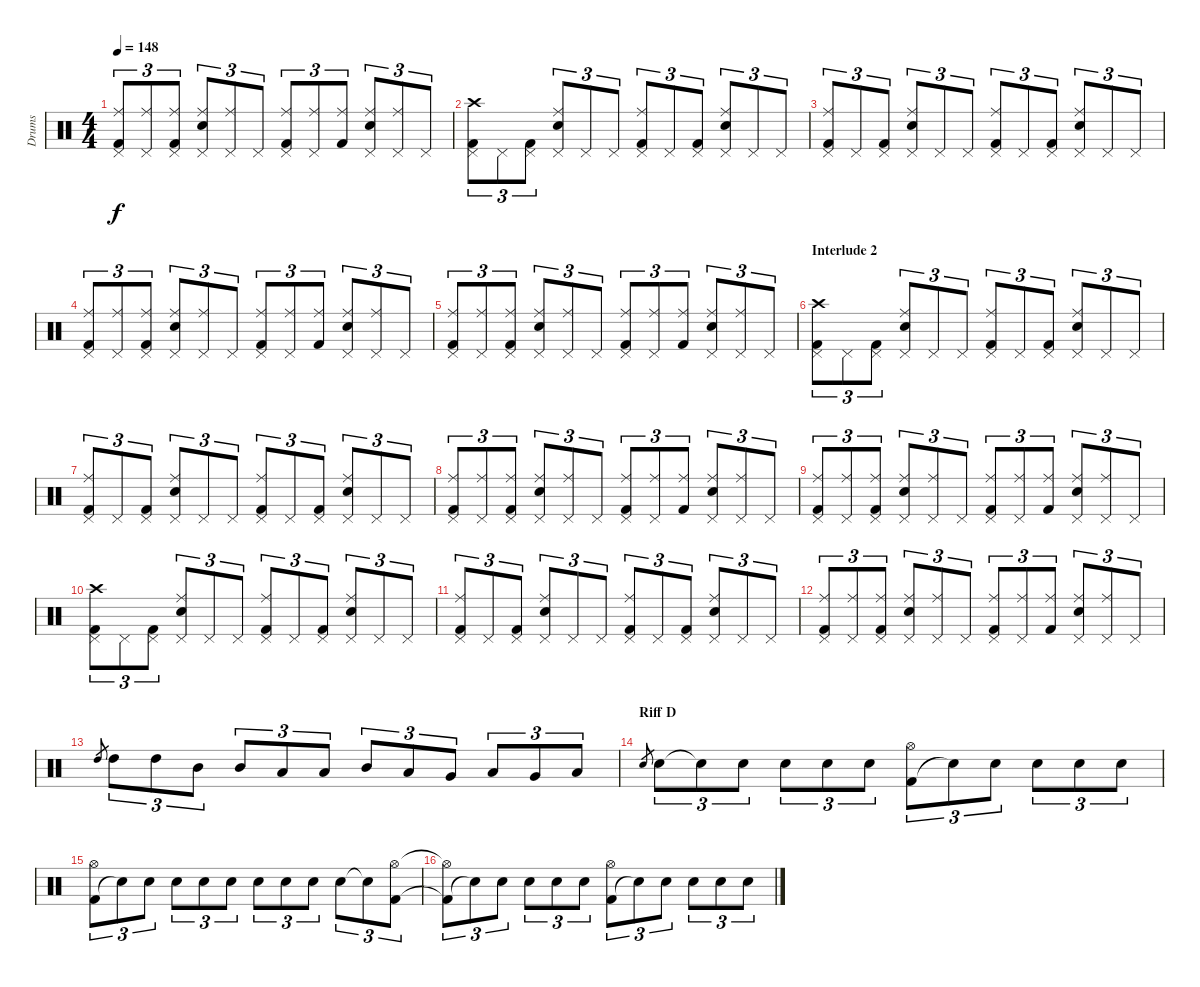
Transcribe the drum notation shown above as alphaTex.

\track ("Drums" "Drums") {instrument percussion}
\staff {score}
\articulation defaults
\ts (4 4)
\tempo 148
\clef neutral
\ks c
("Kick (hit) 2" "Pedal Hi-Hat (hit)" "Ride (middle)").8{tu (3 2) dy f} ("Pedal Hi-Hat (hit)" "Ride (middle)").8{tu (3 2)} ("Kick (hit) 2" "Pedal Hi-Hat (hit)" "Ride (middle)").8{tu (3 2)} ("Snare (hit) 2" "Pedal Hi-Hat (hit)" "Ride (middle)").8{tu (3 2)} ("Pedal Hi-Hat (hit)" "Ride (middle)").8{tu (3 2)} "Pedal Hi-Hat (hit)".8{tu (3 2)} ("Kick (hit) 2" "Pedal Hi-Hat (hit)" "Ride (middle)").8{tu (3 2)} ("Pedal Hi-Hat (hit)" "Ride (middle)").8{tu (3 2)} ("Kick (hit) 2" "Ride (middle)").8{tu (3 2)} ("Snare (hit) 2" "Pedal Hi-Hat (hit)" "Ride (middle)").8{tu (3 2)} ("Pedal Hi-Hat (hit)" "Ride (middle)").8{tu (3 2)} "Pedal Hi-Hat (hit)".8{tu (3 2)} |
("Kick (hit) 2" "Pedal Hi-Hat (hit)" "Crash high (hit)").8{tu (3 2)} "Pedal Hi-Hat (hit)".8{tu (3 2)} ("Kick (hit) 2" "Pedal Hi-Hat (hit)").8{tu (3 2)} ("Snare (hit) 2" "Pedal Hi-Hat (hit)" "Ride (middle)").8{tu (3 2)} "Pedal Hi-Hat (hit)".8{tu (3 2)} "Pedal Hi-Hat (hit)".8{tu (3 2)} ("Kick (hit) 2" "Pedal Hi-Hat (hit)" "Ride (middle)").8{tu (3 2)} "Pedal Hi-Hat (hit)".8{tu (3 2)} ("Kick (hit) 2" "Pedal Hi-Hat (hit)").8{tu (3 2)} ("Snare (hit) 2" "Pedal Hi-Hat (hit)" "Ride (middle)").8{tu (3 2)} "Pedal Hi-Hat (hit)".8{tu (3 2)} "Pedal Hi-Hat (hit)".8{tu (3 2)} |
("Kick (hit) 2" "Pedal Hi-Hat (hit)" "Ride (middle)").8{tu (3 2)} "Pedal Hi-Hat (hit)".8{tu (3 2)} ("Kick (hit) 2" "Pedal Hi-Hat (hit)").8{tu (3 2)} ("Snare (hit) 2" "Pedal Hi-Hat (hit)" "Ride (middle)").8{tu (3 2)} "Pedal Hi-Hat (hit)".8{tu (3 2)} "Pedal Hi-Hat (hit)".8{tu (3 2)} ("Kick (hit) 2" "Pedal Hi-Hat (hit)" "Ride (middle)").8{tu (3 2)} "Pedal Hi-Hat (hit)".8{tu (3 2)} ("Kick (hit) 2" "Pedal Hi-Hat (hit)").8{tu (3 2)} ("Snare (hit) 2" "Pedal Hi-Hat (hit)" "Ride (middle)").8{tu (3 2)} "Pedal Hi-Hat (hit)".8{tu (3 2)} "Pedal Hi-Hat (hit)".8{tu (3 2)} |
("Kick (hit) 2" "Pedal Hi-Hat (hit)" "Ride (middle)").8{tu (3 2)} ("Pedal Hi-Hat (hit)" "Ride (middle)").8{tu (3 2)} ("Kick (hit) 2" "Pedal Hi-Hat (hit)" "Ride (middle)").8{tu (3 2)} ("Snare (hit) 2" "Pedal Hi-Hat (hit)" "Ride (middle)").8{tu (3 2)} ("Pedal Hi-Hat (hit)" "Ride (middle)").8{tu (3 2)} "Pedal Hi-Hat (hit)".8{tu (3 2)} ("Kick (hit) 2" "Pedal Hi-Hat (hit)" "Ride (middle)").8{tu (3 2)} ("Pedal Hi-Hat (hit)" "Ride (middle)").8{tu (3 2)} ("Kick (hit) 2" "Ride (middle)").8{tu (3 2)} ("Snare (hit) 2" "Pedal Hi-Hat (hit)" "Ride (middle)").8{tu (3 2)} ("Pedal Hi-Hat (hit)" "Ride (middle)").8{tu (3 2)} "Pedal Hi-Hat (hit)".8{tu (3 2)} |
("Kick (hit) 2" "Pedal Hi-Hat (hit)" "Ride (middle)").8{tu (3 2)} ("Pedal Hi-Hat (hit)" "Ride (middle)").8{tu (3 2)} ("Kick (hit) 2" "Pedal Hi-Hat (hit)" "Ride (middle)").8{tu (3 2)} ("Snare (hit) 2" "Pedal Hi-Hat (hit)" "Ride (middle)").8{tu (3 2)} ("Pedal Hi-Hat (hit)" "Ride (middle)").8{tu (3 2)} "Pedal Hi-Hat (hit)".8{tu (3 2)} ("Kick (hit) 2" "Pedal Hi-Hat (hit)" "Ride (middle)").8{tu (3 2)} ("Pedal Hi-Hat (hit)" "Ride (middle)").8{tu (3 2)} ("Kick (hit) 2" "Ride (middle)").8{tu (3 2)} ("Snare (hit) 2" "Pedal Hi-Hat (hit)" "Ride (middle)").8{tu (3 2)} ("Pedal Hi-Hat (hit)" "Ride (middle)").8{tu (3 2)} "Pedal Hi-Hat (hit)".8{tu (3 2)} |
\section ("" "Interlude 2")
("Kick (hit) 2" "Pedal Hi-Hat (hit)" "Crash high (hit)").8{tu (3 2)} "Pedal Hi-Hat (hit)".8{tu (3 2)} ("Kick (hit) 2" "Pedal Hi-Hat (hit)").8{tu (3 2)} ("Snare (hit) 2" "Pedal Hi-Hat (hit)" "Ride (middle)").8{tu (3 2)} "Pedal Hi-Hat (hit)".8{tu (3 2)} "Pedal Hi-Hat (hit)".8{tu (3 2)} ("Kick (hit) 2" "Pedal Hi-Hat (hit)" "Ride (middle)").8{tu (3 2)} "Pedal Hi-Hat (hit)".8{tu (3 2)} ("Kick (hit) 2" "Pedal Hi-Hat (hit)").8{tu (3 2)} ("Snare (hit) 2" "Pedal Hi-Hat (hit)" "Ride (middle)").8{tu (3 2)} "Pedal Hi-Hat (hit)".8{tu (3 2)} "Pedal Hi-Hat (hit)".8{tu (3 2)} |
("Kick (hit) 2" "Pedal Hi-Hat (hit)" "Ride (middle)").8{tu (3 2)} "Pedal Hi-Hat (hit)".8{tu (3 2)} ("Kick (hit) 2" "Pedal Hi-Hat (hit)").8{tu (3 2)} ("Snare (hit) 2" "Pedal Hi-Hat (hit)" "Ride (middle)").8{tu (3 2)} "Pedal Hi-Hat (hit)".8{tu (3 2)} "Pedal Hi-Hat (hit)".8{tu (3 2)} ("Kick (hit) 2" "Pedal Hi-Hat (hit)" "Ride (middle)").8{tu (3 2)} "Pedal Hi-Hat (hit)".8{tu (3 2)} ("Kick (hit) 2" "Pedal Hi-Hat (hit)").8{tu (3 2)} ("Snare (hit) 2" "Pedal Hi-Hat (hit)" "Ride (middle)").8{tu (3 2)} "Pedal Hi-Hat (hit)".8{tu (3 2)} "Pedal Hi-Hat (hit)".8{tu (3 2)} |
("Kick (hit) 2" "Pedal Hi-Hat (hit)" "Ride (middle)").8{tu (3 2)} ("Pedal Hi-Hat (hit)" "Ride (middle)").8{tu (3 2)} ("Kick (hit) 2" "Pedal Hi-Hat (hit)" "Ride (middle)").8{tu (3 2)} ("Snare (hit) 2" "Pedal Hi-Hat (hit)" "Ride (middle)").8{tu (3 2)} ("Pedal Hi-Hat (hit)" "Ride (middle)").8{tu (3 2)} "Pedal Hi-Hat (hit)".8{tu (3 2)} ("Kick (hit) 2" "Pedal Hi-Hat (hit)" "Ride (middle)").8{tu (3 2)} ("Pedal Hi-Hat (hit)" "Ride (middle)").8{tu (3 2)} ("Kick (hit) 2" "Ride (middle)").8{tu (3 2)} ("Snare (hit) 2" "Pedal Hi-Hat (hit)" "Ride (middle)").8{tu (3 2)} ("Pedal Hi-Hat (hit)" "Ride (middle)").8{tu (3 2)} "Pedal Hi-Hat (hit)".8{tu (3 2)} |
("Kick (hit) 2" "Pedal Hi-Hat (hit)" "Ride (middle)").8{tu (3 2)} ("Pedal Hi-Hat (hit)" "Ride (middle)").8{tu (3 2)} ("Kick (hit) 2" "Pedal Hi-Hat (hit)" "Ride (middle)").8{tu (3 2)} ("Snare (hit) 2" "Pedal Hi-Hat (hit)" "Ride (middle)").8{tu (3 2)} ("Pedal Hi-Hat (hit)" "Ride (middle)").8{tu (3 2)} "Pedal Hi-Hat (hit)".8{tu (3 2)} ("Kick (hit) 2" "Pedal Hi-Hat (hit)" "Ride (middle)").8{tu (3 2)} ("Pedal Hi-Hat (hit)" "Ride (middle)").8{tu (3 2)} ("Kick (hit) 2" "Ride (middle)").8{tu (3 2)} ("Snare (hit) 2" "Pedal Hi-Hat (hit)" "Ride (middle)").8{tu (3 2)} ("Pedal Hi-Hat (hit)" "Ride (middle)").8{tu (3 2)} "Pedal Hi-Hat (hit)".8{tu (3 2)} |
("Kick (hit) 2" "Pedal Hi-Hat (hit)" "Crash high (hit)").8{tu (3 2)} "Pedal Hi-Hat (hit)".8{tu (3 2)} ("Kick (hit) 2" "Pedal Hi-Hat (hit)").8{tu (3 2)} ("Snare (hit) 2" "Pedal Hi-Hat (hit)" "Ride (middle)").8{tu (3 2)} "Pedal Hi-Hat (hit)".8{tu (3 2)} "Pedal Hi-Hat (hit)".8{tu (3 2)} ("Kick (hit) 2" "Pedal Hi-Hat (hit)" "Ride (middle)").8{tu (3 2)} "Pedal Hi-Hat (hit)".8{tu (3 2)} ("Kick (hit) 2" "Pedal Hi-Hat (hit)").8{tu (3 2)} ("Snare (hit) 2" "Pedal Hi-Hat (hit)" "Ride (middle)").8{tu (3 2)} "Pedal Hi-Hat (hit)".8{tu (3 2)} "Pedal Hi-Hat (hit)".8{tu (3 2)} |
("Kick (hit) 2" "Pedal Hi-Hat (hit)" "Ride (middle)").8{tu (3 2)} "Pedal Hi-Hat (hit)".8{tu (3 2)} ("Kick (hit) 2" "Pedal Hi-Hat (hit)").8{tu (3 2)} ("Snare (hit) 2" "Pedal Hi-Hat (hit)" "Ride (middle)").8{tu (3 2)} "Pedal Hi-Hat (hit)".8{tu (3 2)} "Pedal Hi-Hat (hit)".8{tu (3 2)} ("Kick (hit) 2" "Pedal Hi-Hat (hit)" "Ride (middle)").8{tu (3 2)} "Pedal Hi-Hat (hit)".8{tu (3 2)} ("Kick (hit) 2" "Pedal Hi-Hat (hit)").8{tu (3 2)} ("Snare (hit) 2" "Pedal Hi-Hat (hit)" "Ride (middle)").8{tu (3 2)} "Pedal Hi-Hat (hit)".8{tu (3 2)} "Pedal Hi-Hat (hit)".8{tu (3 2)} |
("Kick (hit) 2" "Pedal Hi-Hat (hit)" "Ride (middle)").8{tu (3 2)} ("Pedal Hi-Hat (hit)" "Ride (middle)").8{tu (3 2)} ("Kick (hit) 2" "Pedal Hi-Hat (hit)" "Ride (middle)").8{tu (3 2)} ("Snare (hit) 2" "Pedal Hi-Hat (hit)" "Ride (middle)").8{tu (3 2)} ("Pedal Hi-Hat (hit)" "Ride (middle)").8{tu (3 2)} "Pedal Hi-Hat (hit)".8{tu (3 2)} ("Kick (hit) 2" "Pedal Hi-Hat (hit)" "Ride (middle)").8{tu (3 2)} ("Pedal Hi-Hat (hit)" "Ride (middle)").8{tu (3 2)} ("Kick (hit) 2" "Ride (middle)").8{tu (3 2)} ("Snare (hit) 2" "Pedal Hi-Hat (hit)" "Ride (middle)").8{tu (3 2)} ("Pedal Hi-Hat (hit)" "Ride (middle)").8{tu (3 2)} "Pedal Hi-Hat (hit)".8{tu (3 2)} |
"High Tom (hit)".8{gr} "High Tom (hit)".8{tu (3 2)} "High Tom (hit)".8{tu (3 2)} "Mid Tom (hit)".8{tu (3 2)} "Mid Tom (hit)".8{tu (3 2)} "Low Tom (hit)".8{tu (3 2)} "Low Tom (hit)".8{tu (3 2)} "Mid Tom (hit)".8{tu (3 2)} "Low Tom (hit)".8{tu (3 2)} "Very Low Tom (hit)".8{tu (3 2)} "Low Tom (hit)".8{tu (3 2)} "Very Low Tom (hit)".8{tu (3 2)} "Low Floor Tom (hit)".8{tu (3 2)} |
\section ("" "Riff D")
"Snare (hit) 2".8{gr} "Snare (hit) 2".8{tu (3 2)} "Snare (hit)"{t}.8{tu (3 2)} "Snare (hit) 2".8{tu (3 2)} "Snare (hit) 2".8{tu (3 2)} "Snare (hit) 2".8{tu (3 2)} "Snare (hit) 2".8{tu (3 2)} ("Kick (hit) 2" "Hi-Hat (open)").8{tu (3 2)} "Snare (hit)"{t}.8{tu (3 2)} "Snare (hit) 2".8{tu (3 2)} "Snare (hit) 2".8{tu (3 2)} "Snare (hit) 2".8{tu (3 2)} "Snare (hit) 2".8{tu (3 2)} |
("Kick (hit) 2" "Hi-Hat (open)").8{tu (3 2)} "Snare (hit)"{t}.8{tu (3 2)} "Snare (hit) 2".8{tu (3 2)} "Snare (hit) 2".8{tu (3 2)} "Snare (hit) 2".8{tu (3 2)} "Snare (hit) 2".8{tu (3 2)} "Snare (hit) 2".8{tu (3 2)} "Snare (hit) 2".8{tu (3 2)} "Snare (hit) 2".8{tu (3 2)} "Snare (hit) 2".8{tu (3 2)} "Snare (hit) 2"{t}.8{tu (3 2)} ("Kick (hit) 2" "Hi-Hat (open)").8{tu (3 2)} |
("Kick (hit) 2"{t} "Hi-Hat (open)"{t}).8{tu (3 2)} "Snare (hit)"{t}.8{tu (3 2)} "Snare (hit) 2".8{tu (3 2)} "Snare (hit) 2".8{tu (3 2)} "Snare (hit) 2".8{tu (3 2)} "Snare (hit) 2".8{tu (3 2)} ("Kick (hit) 2" "Hi-Hat (open)").8{tu (3 2)} "Snare (hit)"{t}.8{tu (3 2)} "Snare (hit) 2".8{tu (3 2)} "Snare (hit) 2".8{tu (3 2)} "Snare (hit) 2".8{tu (3 2)} "Snare (hit) 2".8{tu (3 2)}
